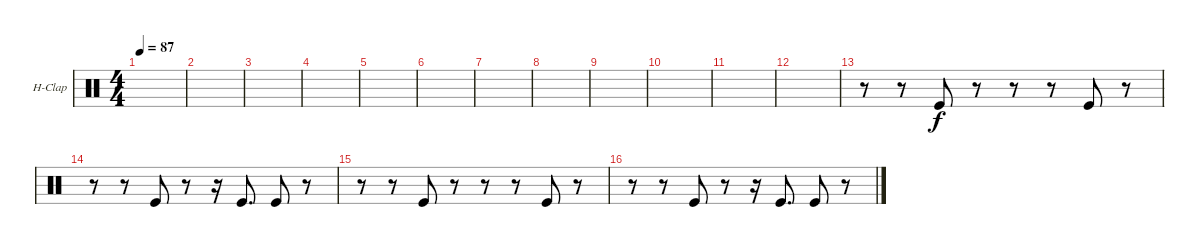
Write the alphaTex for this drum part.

\defaultSystemsLayout 4
\bracketExtendMode groupsimilarinstruments
\firstSystemTrackNameOrientation horizontal
\otherSystemsTrackNameOrientation horizontal
\track ("Hand Clap" "H-Clap") {instrument percussion}
\staff {score}
\articulation defaults
\ts (4 4)
\tempo 87
\clef neutral
\ks c
|
|
|
|
|
|
|
|
|
|
|
|
r.8 r.8 "Kick (hit)".8 r.8 r.8 r.8 "Kick (hit)".8 r.8 |
r.8 r.8 "Kick (hit)".8 r.8 r.16 "Kick (hit)".8{d} "Kick (hit)".8 r.8 |
r.8 r.8 "Kick (hit)".8 r.8 r.8 r.8 "Kick (hit)".8 r.8 |
r.8 r.8 "Kick (hit)".8 r.8 r.16 "Kick (hit)".8{d} "Kick (hit)".8 r.8
